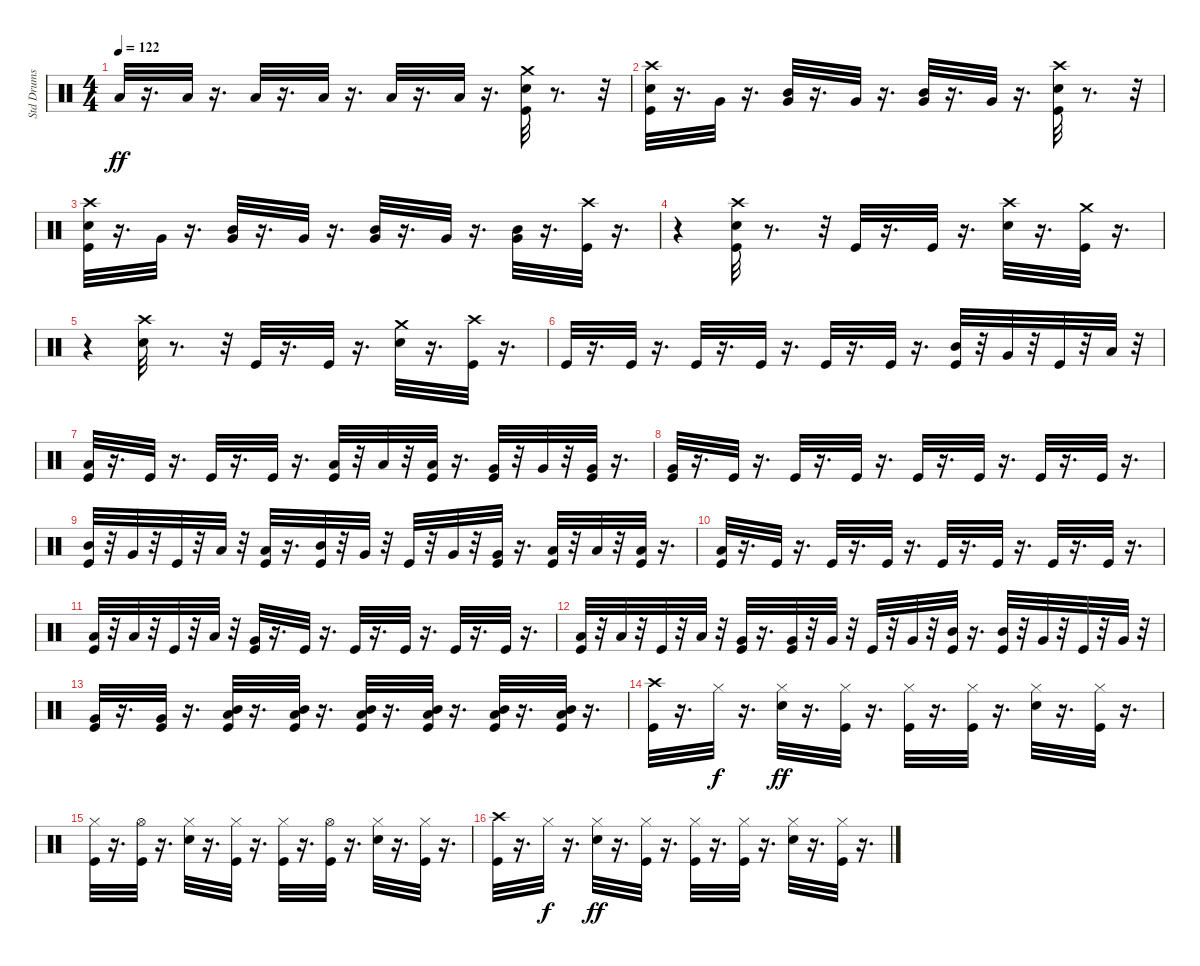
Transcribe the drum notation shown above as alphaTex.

\track ("Std Drums" "Std Drums") {instrument percussion}
\staff {score}
\articulation defaults
\ts (4 4)
\tempo 122
\clef neutral
\ks c "Low Tom (hit)".32{dy ff}
r.16{d} "Low Tom (hit)".32 r.16{d} "Low Tom (hit)".32 r.16{d} "Low Tom (hit)".32 r.16{d} "Low Tom (hit)".32 r.16{d} "Low Tom (hit)".32 r.16{d} ("Crash medium (hit)" "Snare (hit) 2" "Kick (hit)").32 r.8{d} r.32 |
("Kick (hit)" "Snare (hit) 2" "Crash high (hit)").32 r.16{d} "Very Low Tom (hit)".32 r.16{d} ("Mid Tom (hit)" "Very Low Tom (hit)").32 r.16{d} "Very Low Tom (hit)".32 r.16{d} ("Mid Tom (hit)" "Very Low Tom (hit)").32 r.16{d} "Very Low Tom (hit)".32 r.16{d} ("Kick (hit)" "Crash high (hit)" "Snare (hit) 2").32 r.8{d} r.32 |
("Snare (hit) 2" "Kick (hit)" "Crash high (hit)").32 r.16{d} "Very Low Tom (hit)".32 r.16{d} ("Very Low Tom (hit)" "Mid Tom (hit)").32 r.16{d} "Very Low Tom (hit)".32 r.16{d} ("Mid Tom (hit)" "Very Low Tom (hit)").32 r.16{d} "Very Low Tom (hit)".32 r.16{d} ("Mid Tom (hit)" "Very Low Tom (hit)").32 r.16{d} ("Crash high (hit)" "Kick (hit)").32 r.16{d} |
r.4 ("Crash high (hit)" "Kick (hit)" "Snare (hit) 2").32 r.8{d} r.32 "Kick (hit)".32 r.16{d} "Kick (hit)".32 r.16{d} ("Snare (hit) 2" "Crash high (hit)").32 r.16{d} ("Kick (hit)" "Crash medium (hit)").32 r.16{d} |
r.4 ("Crash high (hit)" "Snare (hit) 2").32 r.8{d} r.32 "Kick (hit)".32 r.16{d} "Kick (hit)".32 r.16{d} ("Snare (hit) 2" "Crash medium (hit)").32 r.16{d} ("Crash high (hit)" "Kick (hit)").32 r.16{d} |
"Kick (hit)".32 r.16{d} "Kick (hit)".32 r.16{d} "Kick (hit)".32 r.16{d} "Kick (hit)".32 r.16{d} "Kick (hit)".32 r.16{d} "Kick (hit)".32 r.16{d} ("Kick (hit)" "Mid Tom (hit)").32 r.32 "Very Low Tom (hit)".32 r.32 "Kick (hit)".32 r.32 "Low Tom (hit)".32 r.32 |
("Kick (hit)" "Low Tom (hit)").32 r.16{d} "Kick (hit)".32 r.16{d} "Kick (hit)".32 r.16{d} "Kick (hit)".32 r.16{d} ("Low Tom (hit)" "Kick (hit)").32 r.32 "Low Tom (hit)".32 r.32 ("Low Tom (hit)" "Kick (hit)").32 r.16{d} ("Kick (hit)" "Very Low Tom (hit)").32 r.32 "Very Low Tom (hit)".32 r.32 ("Very Low Tom (hit)" "Kick (hit)").32 r.16{d} |
("Very Low Tom (hit)" "Kick (hit)").32 r.16{d} "Kick (hit)".32 r.16{d} "Kick (hit)".32 r.16{d} "Kick (hit)".32 r.16{d} "Kick (hit)".32 r.16{d} "Kick (hit)".32 r.16{d} "Kick (hit)".32 r.16{d} "Kick (hit)".32 r.16{d} |
("Mid Tom (hit)" "Kick (hit)").32 r.32 "Very Low Tom (hit)".32 r.32 "Kick (hit)".32 r.32 "Low Tom (hit)".32 r.32 ("Kick (hit)" "Low Tom (hit)").32 r.16{d} ("Mid Tom (hit)" "Kick (hit)").32 r.32 "Very Low Tom (hit)".32 r.32 "Kick (hit)".32 r.32 "Very Low Tom (hit)".32 r.32 ("Very Low Tom (hit)" "Kick (hit)").32 r.16{d} ("Low Tom (hit)" "Kick (hit)").32 r.32 "Low Tom (hit)".32 r.32 ("Low Tom (hit)" "Kick (hit)").32 r.16{d} |
("Low Tom (hit)" "Kick (hit)").32 r.16{d} "Kick (hit)".32 r.16{d} "Kick (hit)".32 r.16{d} "Kick (hit)".32 r.16{d} "Kick (hit)".32 r.16{d} "Kick (hit)".32 r.16{d} "Kick (hit)".32 r.16{d} "Kick (hit)".32 r.16{d} |
("Kick (hit)" "Low Tom (hit)").32 r.32 "Low Tom (hit)".32 r.32 "Kick (hit)".32 r.32 "Low Tom (hit)".32 r.32 ("Very Low Tom (hit)" "Kick (hit)").32 r.16{d} "Kick (hit)".32 r.16{d} "Kick (hit)".32 r.16{d} "Kick (hit)".32 r.16{d} "Kick (hit)".32 r.16{d} "Kick (hit)".32 r.16{d} |
("Low Tom (hit)" "Kick (hit)").32 r.32 "Low Tom (hit)".32 r.32 "Kick (hit)".32 r.32 "Low Tom (hit)".32 r.32 ("Kick (hit)" "Very Low Tom (hit)").32 r.16{d} ("Very Low Tom (hit)" "Kick (hit)").32 r.32 "Very Low Tom (hit)".32 r.32 "Kick (hit)".32 r.32 "Very Low Tom (hit)".32 r.32 ("Mid Tom (hit)" "Kick (hit)").32 r.16{d} ("Kick (hit)" "Mid Tom (hit)").32 r.32 "Very Low Tom (hit)".32 r.32 "Kick (hit)".32 r.32 "Very Low Tom (hit)".32 r.32 |
("Kick (hit)" "Very Low Tom (hit)").32 r.16{d} ("Kick (hit)" "Very Low Tom (hit)").32 r.16{d} ("Kick (hit)" "Low Tom (hit)" "Mid Tom (hit)").32 r.16{d} ("Kick (hit)" "Low Tom (hit)" "Mid Tom (hit)").32 r.16{d} ("Low Tom (hit)" "Kick (hit)" "Mid Tom (hit)").32 r.16{d} ("Low Tom (hit)" "Kick (hit)" "Mid Tom (hit)").32 r.16{d} ("Kick (hit)" "Low Tom (hit)" "Mid Tom (hit)").32 r.16{d} ("Kick (hit)" "Low Tom (hit)" "Mid Tom (hit)").32 r.16{d} |
("Kick (hit)" "Crash high (hit)").32 r.16{d} "Hi-Hat (closed)".32{dy f} r.16{d} ("Snare (hit) 2" "Hi-Hat (closed)").32{dy ff} r.16{d} ("Hi-Hat (closed)" "Kick (hit)").32 r.16{d} ("Hi-Hat (closed)" "Kick (hit)").32 r.16{d} ("Hi-Hat (closed)" "Kick (hit)").32 r.16{d} ("Snare (hit) 2" "Hi-Hat (closed)").32 r.16{d} ("Hi-Hat (closed)" "Kick (hit)").32 r.16{d} |
("Kick (hit)" "Hi-Hat (closed)").32 r.16{d} ("Kick (hit)" "Hi-Hat (open)").32 r.16{d} ("Hi-Hat (closed)" "Snare (hit) 2").32 r.16{d} ("Hi-Hat (closed)" "Kick (hit)").32 r.16{d} ("Kick (hit)" "Hi-Hat (closed)").32 r.16{d} ("Kick (hit)" "Hi-Hat (open)").32 r.16{d} ("Hi-Hat (closed)" "Snare (hit) 2").32 r.16{d} ("Kick (hit)" "Hi-Hat (closed)").32 r.16{d} |
("Kick (hit)" "Crash high (hit)").32 r.16{d} "Hi-Hat (closed)".32{dy f} r.16{d} ("Snare (hit) 2" "Hi-Hat (closed)").32{dy ff} r.16{d} ("Kick (hit)" "Hi-Hat (closed)").32 r.16{d} ("Kick (hit)" "Hi-Hat (closed)").32 r.16{d} ("Kick (hit)" "Hi-Hat (closed)").32 r.16{d} ("Hi-Hat (closed)" "Snare (hit) 2").32 r.16{d} ("Hi-Hat (closed)" "Kick (hit)").32 r.16{d}
